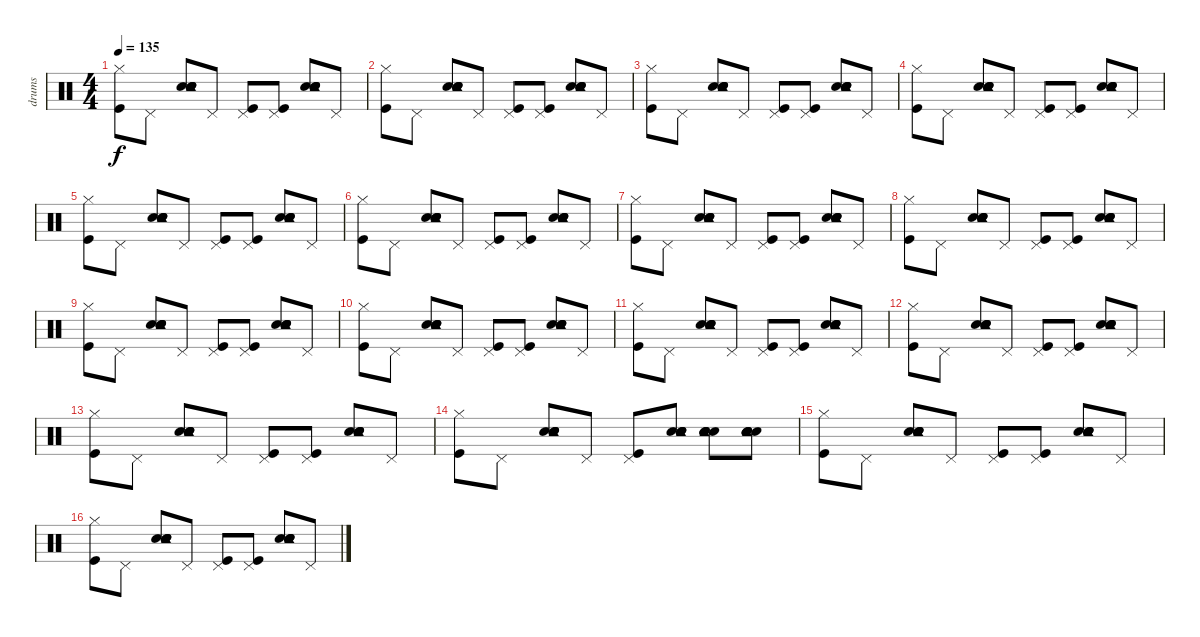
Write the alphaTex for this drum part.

\track ("drums" "drums") {instrument percussion}
\staff {score}
\articulation defaults
\ts (4 4)
\tempo 135
\clef neutral
\ks c
("Kick (hit)" "Hi-Hat (closed)").8{dy f} "Pedal Hi-Hat (hit)".8 ("Snare (hit) 2" "Snare (hit) 2" "Electric Snare (hit)" "Electric Snare (hit)" "Tambourine (hit)").8 "Pedal Hi-Hat (hit)".8 ("Kick (hit)" "Pedal Hi-Hat (hit)").8 ("Kick (hit)" "Pedal Hi-Hat (hit)").8 ("Snare (hit) 2" "Snare (hit) 2" "Electric Snare (hit)" "Electric Snare (hit)" "Tambourine (hit)").8 "Pedal Hi-Hat (hit)".8 |
("Kick (hit)" "Hi-Hat (closed)").8 "Pedal Hi-Hat (hit)".8 ("Snare (hit) 2" "Snare (hit) 2" "Electric Snare (hit)" "Electric Snare (hit)" "Tambourine (hit)").8 "Pedal Hi-Hat (hit)".8 ("Kick (hit)" "Pedal Hi-Hat (hit)").8 ("Kick (hit)" "Pedal Hi-Hat (hit)").8 ("Snare (hit) 2" "Snare (hit) 2" "Electric Snare (hit)" "Electric Snare (hit)" "Tambourine (hit)").8 "Pedal Hi-Hat (hit)".8 |
("Kick (hit)" "Hi-Hat (closed)").8 "Pedal Hi-Hat (hit)".8 ("Snare (hit) 2" "Snare (hit) 2" "Electric Snare (hit)" "Electric Snare (hit)" "Tambourine (hit)").8 "Pedal Hi-Hat (hit)".8 ("Kick (hit)" "Pedal Hi-Hat (hit)").8 ("Kick (hit)" "Pedal Hi-Hat (hit)").8 ("Snare (hit) 2" "Snare (hit) 2" "Electric Snare (hit)" "Electric Snare (hit)" "Tambourine (hit)").8 "Pedal Hi-Hat (hit)".8 |
("Kick (hit)" "Hi-Hat (closed)").8 "Pedal Hi-Hat (hit)".8 ("Snare (hit) 2" "Snare (hit) 2" "Electric Snare (hit)" "Electric Snare (hit)" "Tambourine (hit)").8 "Pedal Hi-Hat (hit)".8 ("Kick (hit)" "Pedal Hi-Hat (hit)").8 ("Kick (hit)" "Pedal Hi-Hat (hit)").8 ("Snare (hit) 2" "Snare (hit) 2" "Electric Snare (hit)" "Electric Snare (hit)" "Tambourine (hit)").8 "Pedal Hi-Hat (hit)".8 |
("Kick (hit)" "Hi-Hat (closed)").8 "Pedal Hi-Hat (hit)".8 ("Snare (hit) 2" "Snare (hit) 2" "Electric Snare (hit)" "Electric Snare (hit)" "Tambourine (hit)").8 "Pedal Hi-Hat (hit)".8 ("Kick (hit)" "Pedal Hi-Hat (hit)").8 ("Kick (hit)" "Pedal Hi-Hat (hit)").8 ("Snare (hit) 2" "Snare (hit) 2" "Electric Snare (hit)" "Electric Snare (hit)" "Tambourine (hit)").8 "Pedal Hi-Hat (hit)".8 |
("Kick (hit)" "Hi-Hat (closed)").8 "Pedal Hi-Hat (hit)".8 ("Snare (hit) 2" "Snare (hit) 2" "Electric Snare (hit)" "Electric Snare (hit)" "Tambourine (hit)").8 "Pedal Hi-Hat (hit)".8 ("Kick (hit)" "Pedal Hi-Hat (hit)").8 ("Kick (hit)" "Pedal Hi-Hat (hit)").8 ("Snare (hit) 2" "Snare (hit) 2" "Electric Snare (hit)" "Electric Snare (hit)" "Tambourine (hit)").8 "Pedal Hi-Hat (hit)".8 |
("Kick (hit)" "Hi-Hat (closed)").8 "Pedal Hi-Hat (hit)".8 ("Snare (hit) 2" "Snare (hit) 2" "Electric Snare (hit)" "Electric Snare (hit)" "Tambourine (hit)").8 "Pedal Hi-Hat (hit)".8 ("Kick (hit)" "Pedal Hi-Hat (hit)").8 ("Kick (hit)" "Pedal Hi-Hat (hit)").8 ("Snare (hit) 2" "Snare (hit) 2" "Electric Snare (hit)" "Electric Snare (hit)" "Tambourine (hit)").8 "Pedal Hi-Hat (hit)".8 |
("Kick (hit)" "Hi-Hat (closed)").8 "Pedal Hi-Hat (hit)".8 ("Snare (hit) 2" "Snare (hit) 2" "Electric Snare (hit)" "Electric Snare (hit)" "Tambourine (hit)").8 "Pedal Hi-Hat (hit)".8 ("Kick (hit)" "Pedal Hi-Hat (hit)").8 ("Kick (hit)" "Pedal Hi-Hat (hit)").8 ("Snare (hit) 2" "Snare (hit) 2" "Electric Snare (hit)" "Electric Snare (hit)" "Tambourine (hit)").8 "Pedal Hi-Hat (hit)".8 |
("Kick (hit)" "Hi-Hat (closed)").8 "Pedal Hi-Hat (hit)".8 ("Snare (hit) 2" "Snare (hit) 2" "Electric Snare (hit)" "Electric Snare (hit)" "Tambourine (hit)").8 "Pedal Hi-Hat (hit)".8 ("Kick (hit)" "Pedal Hi-Hat (hit)").8 ("Kick (hit)" "Pedal Hi-Hat (hit)").8 ("Snare (hit) 2" "Snare (hit) 2" "Electric Snare (hit)" "Electric Snare (hit)" "Tambourine (hit)").8 "Pedal Hi-Hat (hit)".8 |
("Kick (hit)" "Hi-Hat (closed)").8 "Pedal Hi-Hat (hit)".8 ("Snare (hit) 2" "Snare (hit) 2" "Electric Snare (hit)" "Electric Snare (hit)" "Tambourine (hit)").8 "Pedal Hi-Hat (hit)".8 ("Kick (hit)" "Pedal Hi-Hat (hit)").8 ("Kick (hit)" "Pedal Hi-Hat (hit)").8 ("Snare (hit) 2" "Snare (hit) 2" "Electric Snare (hit)" "Electric Snare (hit)" "Tambourine (hit)").8 "Pedal Hi-Hat (hit)".8 |
("Kick (hit)" "Hi-Hat (closed)").8 "Pedal Hi-Hat (hit)".8 ("Snare (hit) 2" "Snare (hit) 2" "Electric Snare (hit)" "Electric Snare (hit)" "Tambourine (hit)").8 "Pedal Hi-Hat (hit)".8 ("Kick (hit)" "Pedal Hi-Hat (hit)").8 ("Kick (hit)" "Pedal Hi-Hat (hit)").8 ("Snare (hit) 2" "Snare (hit) 2" "Electric Snare (hit)" "Electric Snare (hit)" "Tambourine (hit)").8 "Pedal Hi-Hat (hit)".8 |
("Kick (hit)" "Hi-Hat (closed)").8 "Pedal Hi-Hat (hit)".8 ("Snare (hit) 2" "Snare (hit) 2" "Electric Snare (hit)" "Electric Snare (hit)" "Tambourine (hit)").8 "Pedal Hi-Hat (hit)".8 ("Kick (hit)" "Pedal Hi-Hat (hit)").8 ("Kick (hit)" "Pedal Hi-Hat (hit)").8 ("Snare (hit) 2" "Snare (hit) 2" "Electric Snare (hit)" "Electric Snare (hit)" "Tambourine (hit)").8 "Pedal Hi-Hat (hit)".8 |
("Kick (hit)" "Hi-Hat (closed)").8 "Pedal Hi-Hat (hit)".8 ("Snare (hit) 2" "Snare (hit) 2" "Electric Snare (hit)" "Electric Snare (hit)" "Tambourine (hit)").8 "Pedal Hi-Hat (hit)".8 ("Kick (hit)" "Pedal Hi-Hat (hit)").8 ("Kick (hit)" "Pedal Hi-Hat (hit)").8 ("Snare (hit) 2" "Snare (hit) 2" "Electric Snare (hit)" "Electric Snare (hit)" "Tambourine (hit)").8 "Pedal Hi-Hat (hit)".8 |
("Kick (hit)" "Hi-Hat (closed)").8 "Pedal Hi-Hat (hit)".8 ("Snare (hit) 2" "Snare (hit) 2" "Electric Snare (hit)" "Electric Snare (hit)" "Tambourine (hit)").8 "Pedal Hi-Hat (hit)".8 ("Kick (hit)" "Pedal Hi-Hat (hit)").8 ("Snare (hit) 2" "Snare (hit) 2" "Electric Snare (hit)" "Electric Snare (hit)" "Tambourine (hit)").8 ("Snare (hit) 2" "Snare (hit) 2" "Electric Snare (hit)" "Electric Snare (hit)" "Tambourine (hit)").8 ("Snare (hit) 2" "Snare (hit) 2" "Electric Snare (hit)" "Electric Snare (hit)" "Tambourine (hit)").8 |
("Kick (hit)" "Hi-Hat (closed)").8 "Pedal Hi-Hat (hit)".8 ("Snare (hit) 2" "Snare (hit) 2" "Electric Snare (hit)" "Electric Snare (hit)" "Tambourine (hit)").8 "Pedal Hi-Hat (hit)".8 ("Kick (hit)" "Pedal Hi-Hat (hit)").8 ("Kick (hit)" "Pedal Hi-Hat (hit)").8 ("Snare (hit) 2" "Snare (hit) 2" "Electric Snare (hit)" "Electric Snare (hit)" "Tambourine (hit)").8 "Pedal Hi-Hat (hit)".8 |
("Kick (hit)" "Hi-Hat (closed)").8 "Pedal Hi-Hat (hit)".8 ("Snare (hit) 2" "Snare (hit) 2" "Electric Snare (hit)" "Electric Snare (hit)" "Tambourine (hit)").8 "Pedal Hi-Hat (hit)".8 ("Kick (hit)" "Pedal Hi-Hat (hit)").8 ("Kick (hit)" "Pedal Hi-Hat (hit)").8 ("Snare (hit) 2" "Snare (hit) 2" "Electric Snare (hit)" "Electric Snare (hit)" "Tambourine (hit)").8 "Pedal Hi-Hat (hit)".8
